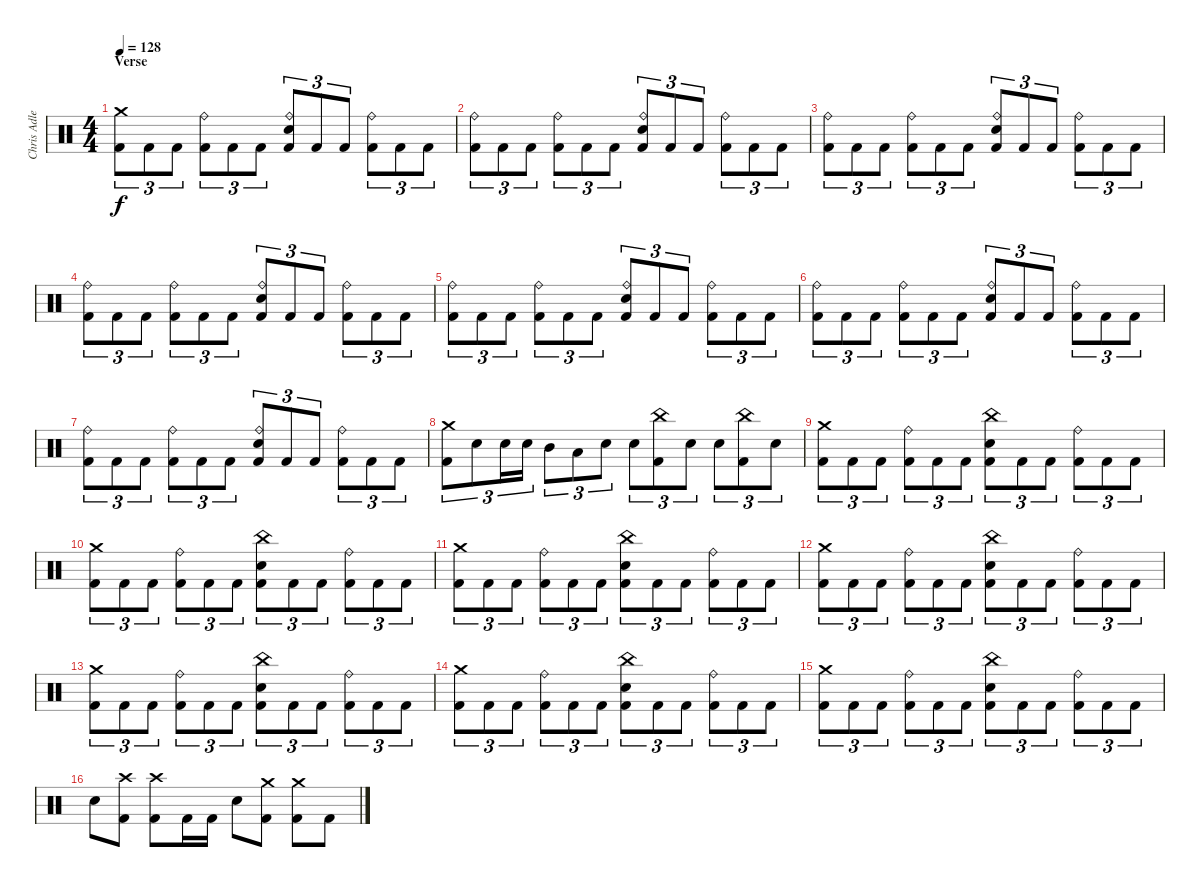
\track ("Chris Adler" "Chris Adle") {instrument percussion}
\staff {score}
\articulation defaults
\ts (4 4)
\section ("" "Verse")
\tempo 128
\clef neutral
\ks c
("Crash medium (hit)" "Kick (hit) 2").8{tu (3 2) dy f} "Kick (hit) 2".8{tu (3 2)} "Kick (hit) 2".8{tu (3 2)} ("Ride (bell)" "Kick (hit) 2").8{tu (3 2)} "Kick (hit) 2".8{tu (3 2)} "Kick (hit) 2".8{tu (3 2)} ("Ride (bell)" "Snare (hit) 2" "Kick (hit) 2").8{tu (3 2)} "Kick (hit) 2".8{tu (3 2)} "Kick (hit) 2".8{tu (3 2)} ("Ride (bell)" "Kick (hit) 2").8{tu (3 2)} "Kick (hit) 2".8{tu (3 2)} "Kick (hit) 2".8{tu (3 2)} |
("Ride (bell)" "Kick (hit) 2").8{tu (3 2)} "Kick (hit) 2".8{tu (3 2)} "Kick (hit) 2".8{tu (3 2)} ("Ride (bell)" "Kick (hit) 2").8{tu (3 2)} "Kick (hit) 2".8{tu (3 2)} "Kick (hit) 2".8{tu (3 2)} ("Ride (bell)" "Snare (hit) 2" "Kick (hit) 2").8{tu (3 2)} "Kick (hit) 2".8{tu (3 2)} "Kick (hit) 2".8{tu (3 2)} ("Ride (bell)" "Kick (hit) 2").8{tu (3 2)} "Kick (hit) 2".8{tu (3 2)} "Kick (hit) 2".8{tu (3 2)} |
("Ride (bell)" "Kick (hit) 2").8{tu (3 2)} "Kick (hit) 2".8{tu (3 2)} "Kick (hit) 2".8{tu (3 2)} ("Ride (bell)" "Kick (hit) 2").8{tu (3 2)} "Kick (hit) 2".8{tu (3 2)} "Kick (hit) 2".8{tu (3 2)} ("Ride (bell)" "Snare (hit) 2" "Kick (hit) 2").8{tu (3 2)} "Kick (hit) 2".8{tu (3 2)} "Kick (hit) 2".8{tu (3 2)} ("Ride (bell)" "Kick (hit) 2").8{tu (3 2)} "Kick (hit) 2".8{tu (3 2)} "Kick (hit) 2".8{tu (3 2)} |
("Ride (bell)" "Kick (hit) 2").8{tu (3 2)} "Kick (hit) 2".8{tu (3 2)} "Kick (hit) 2".8{tu (3 2)} ("Ride (bell)" "Kick (hit) 2").8{tu (3 2)} "Kick (hit) 2".8{tu (3 2)} "Kick (hit) 2".8{tu (3 2)} ("Ride (bell)" "Snare (hit) 2" "Kick (hit) 2").8{tu (3 2)} "Kick (hit) 2".8{tu (3 2)} "Kick (hit) 2".8{tu (3 2)} ("Ride (bell)" "Kick (hit) 2").8{tu (3 2)} "Kick (hit) 2".8{tu (3 2)} "Kick (hit) 2".8{tu (3 2)} |
("Ride (bell)" "Kick (hit) 2").8{tu (3 2)} "Kick (hit) 2".8{tu (3 2)} "Kick (hit) 2".8{tu (3 2)} ("Ride (bell)" "Kick (hit) 2").8{tu (3 2)} "Kick (hit) 2".8{tu (3 2)} "Kick (hit) 2".8{tu (3 2)} ("Ride (bell)" "Snare (hit) 2" "Kick (hit) 2").8{tu (3 2)} "Kick (hit) 2".8{tu (3 2)} "Kick (hit) 2".8{tu (3 2)} ("Ride (bell)" "Kick (hit) 2").8{tu (3 2)} "Kick (hit) 2".8{tu (3 2)} "Kick (hit) 2".8{tu (3 2)} |
("Ride (bell)" "Kick (hit) 2").8{tu (3 2)} "Kick (hit) 2".8{tu (3 2)} "Kick (hit) 2".8{tu (3 2)} ("Ride (bell)" "Kick (hit) 2").8{tu (3 2)} "Kick (hit) 2".8{tu (3 2)} "Kick (hit) 2".8{tu (3 2)} ("Ride (bell)" "Snare (hit) 2" "Kick (hit) 2").8{tu (3 2)} "Kick (hit) 2".8{tu (3 2)} "Kick (hit) 2".8{tu (3 2)} ("Ride (bell)" "Kick (hit) 2").8{tu (3 2)} "Kick (hit) 2".8{tu (3 2)} "Kick (hit) 2".8{tu (3 2)} |
("Ride (bell)" "Kick (hit) 2").8{tu (3 2)} "Kick (hit) 2".8{tu (3 2)} "Kick (hit) 2".8{tu (3 2)} ("Ride (bell)" "Kick (hit) 2").8{tu (3 2)} "Kick (hit) 2".8{tu (3 2)} "Kick (hit) 2".8{tu (3 2)} ("Ride (bell)" "Snare (hit) 2" "Kick (hit) 2").8{tu (3 2)} "Kick (hit) 2".8{tu (3 2)} "Kick (hit) 2".8{tu (3 2)} ("Ride (bell)" "Kick (hit) 2").8{tu (3 2)} "Kick (hit) 2".8{tu (3 2)} "Kick (hit) 2".8{tu (3 2)} |
("Crash medium (hit)" "Kick (hit) 2").8{tu (3 2)} "Snare (hit) 2".8{tu (3 2)} "Snare (hit) 2".16{tu (3 2)} "Snare (hit) 2".16{tu (3 2)} "Mid Tom (hit)".8{tu (3 2)} "Low Tom (hit)".8{tu (3 2)} "Snare (hit) 2".8{tu (3 2)} "Snare (hit) 2".8{tu (3 2)} ("China (hit)" "Kick (hit) 2").8{tu (3 2)} "Snare (hit) 2".8{tu (3 2)} "Snare (hit) 2".8{tu (3 2)} ("China (hit)" "Kick (hit) 2").8{tu (3 2)} "Snare (hit) 2".8{tu (3 2)} |
("Crash medium (hit)" "Kick (hit) 2").8{tu (3 2)} "Kick (hit) 2".8{tu (3 2)} "Kick (hit) 2".8{tu (3 2)} ("Ride (bell)" "Kick (hit) 2").8{tu (3 2)} "Kick (hit) 2".8{tu (3 2)} "Kick (hit) 2".8{tu (3 2)} ("China (hit)" "Snare (hit) 2" "Kick (hit) 2").8{tu (3 2)} "Kick (hit) 2".8{tu (3 2)} "Kick (hit) 2".8{tu (3 2)} ("Ride (bell)" "Kick (hit) 2").8{tu (3 2)} "Kick (hit) 2".8{tu (3 2)} "Kick (hit) 2".8{tu (3 2)} |
("Crash medium (hit)" "Kick (hit) 2").8{tu (3 2)} "Kick (hit) 2".8{tu (3 2)} "Kick (hit) 2".8{tu (3 2)} ("Ride (bell)" "Kick (hit) 2").8{tu (3 2)} "Kick (hit) 2".8{tu (3 2)} "Kick (hit) 2".8{tu (3 2)} ("China (hit)" "Snare (hit) 2" "Kick (hit) 2").8{tu (3 2)} "Kick (hit) 2".8{tu (3 2)} "Kick (hit) 2".8{tu (3 2)} ("Ride (bell)" "Kick (hit) 2").8{tu (3 2)} "Kick (hit) 2".8{tu (3 2)} "Kick (hit) 2".8{tu (3 2)} |
("Crash medium (hit)" "Kick (hit) 2").8{tu (3 2)} "Kick (hit) 2".8{tu (3 2)} "Kick (hit) 2".8{tu (3 2)} ("Ride (bell)" "Kick (hit) 2").8{tu (3 2)} "Kick (hit) 2".8{tu (3 2)} "Kick (hit) 2".8{tu (3 2)} ("China (hit)" "Snare (hit) 2" "Kick (hit) 2").8{tu (3 2)} "Kick (hit) 2".8{tu (3 2)} "Kick (hit) 2".8{tu (3 2)} ("Ride (bell)" "Kick (hit) 2").8{tu (3 2)} "Kick (hit) 2".8{tu (3 2)} "Kick (hit) 2".8{tu (3 2)} |
("Crash medium (hit)" "Kick (hit) 2").8{tu (3 2)} "Kick (hit) 2".8{tu (3 2)} "Kick (hit) 2".8{tu (3 2)} ("Ride (bell)" "Kick (hit) 2").8{tu (3 2)} "Kick (hit) 2".8{tu (3 2)} "Kick (hit) 2".8{tu (3 2)} ("China (hit)" "Snare (hit) 2" "Kick (hit) 2").8{tu (3 2)} "Kick (hit) 2".8{tu (3 2)} "Kick (hit) 2".8{tu (3 2)} ("Ride (bell)" "Kick (hit) 2").8{tu (3 2)} "Kick (hit) 2".8{tu (3 2)} "Kick (hit) 2".8{tu (3 2)} |
("Crash medium (hit)" "Kick (hit) 2").8{tu (3 2)} "Kick (hit) 2".8{tu (3 2)} "Kick (hit) 2".8{tu (3 2)} ("Ride (bell)" "Kick (hit) 2").8{tu (3 2)} "Kick (hit) 2".8{tu (3 2)} "Kick (hit) 2".8{tu (3 2)} ("China (hit)" "Snare (hit) 2" "Kick (hit) 2").8{tu (3 2)} "Kick (hit) 2".8{tu (3 2)} "Kick (hit) 2".8{tu (3 2)} ("Ride (bell)" "Kick (hit) 2").8{tu (3 2)} "Kick (hit) 2".8{tu (3 2)} "Kick (hit) 2".8{tu (3 2)} |
("Crash medium (hit)" "Kick (hit) 2").8{tu (3 2)} "Kick (hit) 2".8{tu (3 2)} "Kick (hit) 2".8{tu (3 2)} ("Ride (bell)" "Kick (hit) 2").8{tu (3 2)} "Kick (hit) 2".8{tu (3 2)} "Kick (hit) 2".8{tu (3 2)} ("China (hit)" "Snare (hit) 2" "Kick (hit) 2").8{tu (3 2)} "Kick (hit) 2".8{tu (3 2)} "Kick (hit) 2".8{tu (3 2)} ("Ride (bell)" "Kick (hit) 2").8{tu (3 2)} "Kick (hit) 2".8{tu (3 2)} "Kick (hit) 2".8{tu (3 2)} |
("Crash medium (hit)" "Kick (hit) 2").8{tu (3 2)} "Kick (hit) 2".8{tu (3 2)} "Kick (hit) 2".8{tu (3 2)} ("Ride (bell)" "Kick (hit) 2").8{tu (3 2)} "Kick (hit) 2".8{tu (3 2)} "Kick (hit) 2".8{tu (3 2)} ("China (hit)" "Snare (hit) 2" "Kick (hit) 2").8{tu (3 2)} "Kick (hit) 2".8{tu (3 2)} "Kick (hit) 2".8{tu (3 2)} ("Ride (bell)" "Kick (hit) 2").8{tu (3 2)} "Kick (hit) 2".8{tu (3 2)} "Kick (hit) 2".8{tu (3 2)} |
"Snare (hit) 2".8 ("Crash high (hit)" "Kick (hit) 2").8 ("Crash high (hit)" "Kick (hit) 2").8 "Kick (hit) 2".16 "Kick (hit) 2".16 "Snare (hit) 2".8 ("Crash medium (hit)" "Kick (hit) 2").8 ("Crash medium (hit)" "Kick (hit) 2").8 "Kick (hit) 2".8
